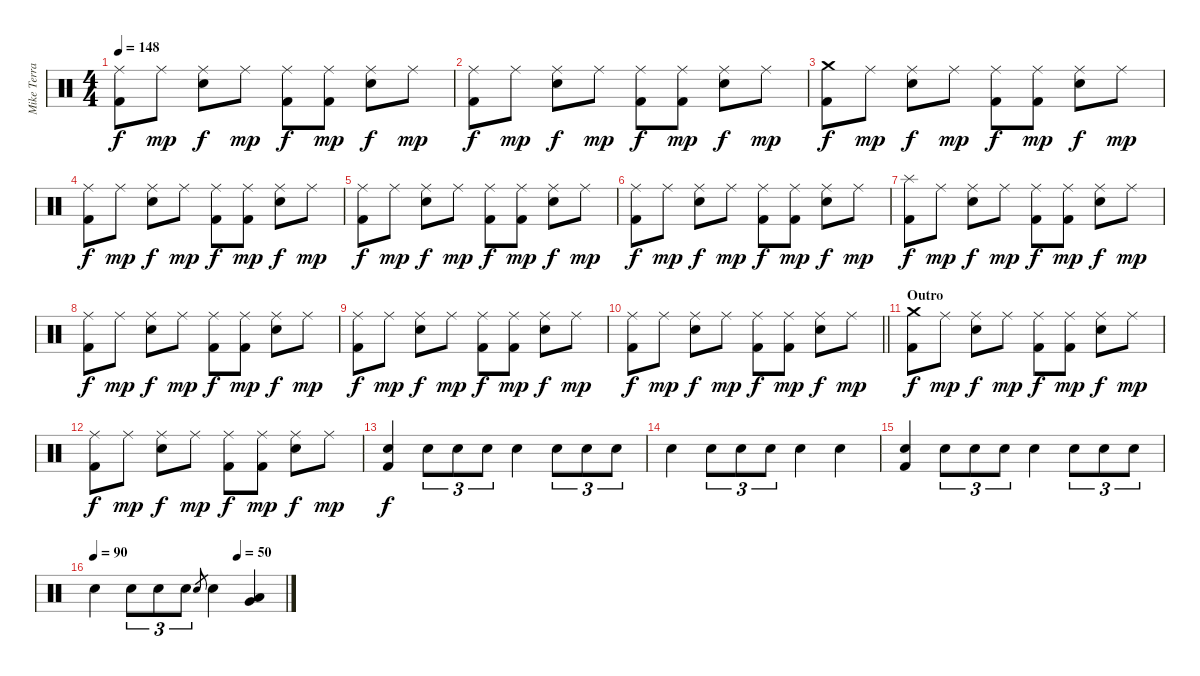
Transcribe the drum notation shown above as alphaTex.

\track ("Mike Terrana" "Mike Terra") {instrument percussion}
\staff {score}
\articulation defaults
\ts (4 4)
\tempo 148
\clef neutral
\ks c
("Ride (middle)" "Kick (hit) 2").8{dy f} "Ride (middle)".8{dy mp} ("Ride (middle)" "Snare (hit) 2").8{dy f} "Ride (middle)".8{dy mp} ("Ride (middle)" "Kick (hit) 2").8{dy f} ("Ride (middle)" "Kick (hit) 2").8{dy mp} ("Ride (middle)" "Snare (hit) 2").8{dy f} "Ride (middle)".8{dy mp} |
("Ride (middle)" "Kick (hit) 2").8{dy f} "Ride (middle)".8{dy mp} ("Ride (middle)" "Snare (hit) 2").8{dy f} "Ride (middle)".8{dy mp} ("Ride (middle)" "Kick (hit) 2").8{dy f} ("Ride (middle)" "Kick (hit) 2").8{dy mp} ("Ride (middle)" "Snare (hit) 2").8{dy f} "Ride (middle)".8{dy mp} |
("Crash medium (hit)" "Kick (hit) 2").8{dy f} "Ride (middle)".8{dy mp} ("Ride (middle)" "Snare (hit) 2").8{dy f} "Ride (middle)".8{dy mp} ("Ride (middle)" "Kick (hit) 2").8{dy f} ("Ride (middle)" "Kick (hit) 2").8{dy mp} ("Ride (middle)" "Snare (hit) 2").8{dy f} "Ride (middle)".8{dy mp} |
("Ride (middle)" "Kick (hit) 2").8{dy f} "Ride (middle)".8{dy mp} ("Ride (middle)" "Snare (hit) 2").8{dy f} "Ride (middle)".8{dy mp} ("Ride (middle)" "Kick (hit) 2").8{dy f} ("Ride (middle)" "Kick (hit) 2").8{dy mp} ("Ride (middle)" "Snare (hit) 2").8{dy f} "Ride (middle)".8{dy mp} |
("Ride (middle)" "Kick (hit) 2").8{dy f} "Ride (middle)".8{dy mp} ("Ride (middle)" "Snare (hit) 2").8{dy f} "Ride (middle)".8{dy mp} ("Ride (middle)" "Kick (hit) 2").8{dy f} ("Ride (middle)" "Kick (hit) 2").8{dy mp} ("Ride (middle)" "Snare (hit) 2").8{dy f} "Ride (middle)".8{dy mp} |
("Ride (middle)" "Kick (hit) 2").8{dy f} "Ride (middle)".8{dy mp} ("Ride (middle)" "Snare (hit) 2").8{dy f} "Ride (middle)".8{dy mp} ("Ride (middle)" "Kick (hit) 2").8{dy f} ("Ride (middle)" "Kick (hit) 2").8{dy mp} ("Ride (middle)" "Snare (hit) 2").8{dy f} "Ride (middle)".8{dy mp} |
("Splash (hit)" "Kick (hit) 2").8{dy f} "Ride (middle)".8{dy mp} ("Ride (middle)" "Snare (hit) 2").8{dy f} "Ride (middle)".8{dy mp} ("Ride (middle)" "Kick (hit) 2").8{dy f} ("Ride (middle)" "Kick (hit) 2").8{dy mp} ("Ride (middle)" "Snare (hit) 2").8{dy f} "Ride (middle)".8{dy mp} |
("Ride (middle)" "Kick (hit) 2").8{dy f} "Ride (middle)".8{dy mp} ("Ride (middle)" "Snare (hit) 2").8{dy f} "Ride (middle)".8{dy mp} ("Ride (middle)" "Kick (hit) 2").8{dy f} ("Ride (middle)" "Kick (hit) 2").8{dy mp} ("Ride (middle)" "Snare (hit) 2").8{dy f} "Ride (middle)".8{dy mp} |
("Ride (middle)" "Kick (hit) 2").8{dy f} "Ride (middle)".8{dy mp} ("Ride (middle)" "Snare (hit) 2").8{dy f} "Ride (middle)".8{dy mp} ("Ride (middle)" "Kick (hit) 2").8{dy f} ("Ride (middle)" "Kick (hit) 2").8{dy mp} ("Ride (middle)" "Snare (hit) 2").8{dy f} "Ride (middle)".8{dy mp} |
\barLineRight lightlight
("Ride (middle)" "Kick (hit) 2").8{dy f} "Ride (middle)".8{dy mp} ("Ride (middle)" "Snare (hit) 2").8{dy f} "Ride (middle)".8{dy mp} ("Ride (middle)" "Kick (hit) 2").8{dy f} ("Ride (middle)" "Kick (hit) 2").8{dy mp} ("Ride (middle)" "Snare (hit) 2").8{dy f} "Ride (middle)".8{dy mp} |
\section ("" "Outro")
("Crash medium (hit)" "Kick (hit) 2").8{dy f} "Ride (middle)".8{dy mp} ("Ride (middle)" "Snare (hit) 2").8{dy f} "Ride (middle)".8{dy mp} ("Ride (middle)" "Kick (hit) 2").8{dy f} ("Ride (middle)" "Kick (hit) 2").8{dy mp} ("Ride (middle)" "Snare (hit) 2").8{dy f} "Ride (middle)".8{dy mp} |
("Ride (middle)" "Kick (hit) 2").8{dy f} "Ride (middle)".8{dy mp} ("Ride (middle)" "Snare (hit) 2").8{dy f} "Ride (middle)".8{dy mp} ("Ride (middle)" "Kick (hit) 2").8{dy f} ("Ride (middle)" "Kick (hit) 2").8{dy mp} ("Ride (middle)" "Snare (hit) 2").8{dy f} "Ride (middle)".8{dy mp} |
("Snare (hit) 2" "Kick (hit) 2").4{dy f} "Snare (hit) 2".8{tu (3 2)} "Snare (hit) 2".8{tu (3 2)} "Snare (hit) 2".8{tu (3 2)} "Snare (hit) 2".4 "Snare (hit) 2".8{tu (3 2)} "Snare (hit) 2".8{tu (3 2)} "Snare (hit) 2".8{tu (3 2)} |
"Snare (hit) 2".4 "Snare (hit) 2".8{tu (3 2)} "Snare (hit) 2".8{tu (3 2)} "Snare (hit) 2".8{tu (3 2)} "Snare (hit) 2".4 "Snare (hit) 2".4 |
("Snare (hit) 2" "Kick (hit) 2").4 "Snare (hit) 2".8{tu (3 2)} "Snare (hit) 2".8{tu (3 2)} "Snare (hit) 2".8{tu (3 2)} "Snare (hit) 2".4 "Snare (hit) 2".8{tu (3 2)} "Snare (hit) 2".8{tu (3 2)} "Snare (hit) 2".8{tu (3 2)} |
\tempo 90
\tempo (50 0.75)
"Snare (hit) 2".4 "Snare (hit) 2".8{tu (3 2)} "Snare (hit) 2".8{tu (3 2)} "Snare (hit) 2".8{tu (3 2)} "Snare (hit) 2".8{gr} "Snare (hit) 2".4 ("Low Tom (hit)" "Very Low Tom (hit)").4
